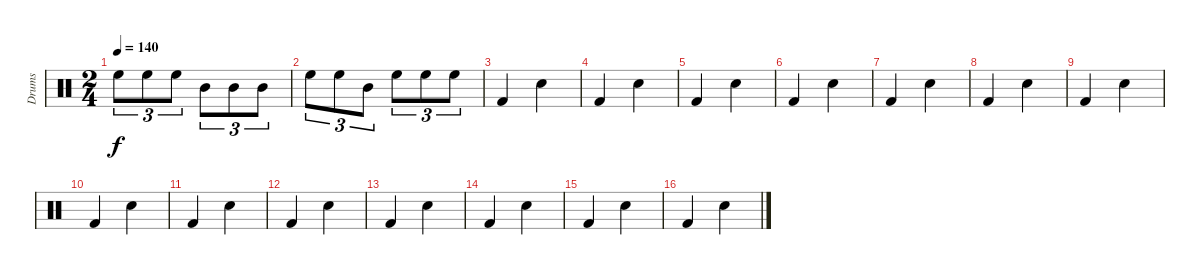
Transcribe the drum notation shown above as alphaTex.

\track ("Drums" "Drums") {instrument percussion}
\staff {score}
\articulation defaults
\ts (2 4)
\tempo 140
\clef neutral
\ks c "High Floor Tom (hit)".8{tu (3 2) dy f} "High Floor Tom (hit)".8{tu (3 2)} "High Floor Tom (hit)".8{tu (3 2)} "Mid Tom (hit)".8{tu (3 2)} "Mid Tom (hit)".8{tu (3 2)} "Mid Tom (hit)".8{tu (3 2)}
|
"High Floor Tom (hit)".8{tu (3 2)} "High Floor Tom (hit)".8{tu (3 2)} "Mid Tom (hit)".8{tu (3 2)} "High Floor Tom (hit)".8{tu (3 2)} "High Floor Tom (hit)".8{tu (3 2)} "High Floor Tom (hit)".8{tu (3 2)} |
"Kick (hit) 2".4 "Snare (hit) 2".4 |
"Kick (hit) 2".4 "Snare (hit) 2".4 |
"Kick (hit) 2".4 "Snare (hit) 2".4 |
"Kick (hit) 2".4 "Snare (hit) 2".4 |
"Kick (hit) 2".4 "Snare (hit) 2".4 |
"Kick (hit) 2".4 "Snare (hit) 2".4 |
"Kick (hit) 2".4 "Snare (hit) 2".4 |
"Kick (hit) 2".4 "Snare (hit) 2".4 |
"Kick (hit) 2".4 "Snare (hit) 2".4 |
"Kick (hit) 2".4 "Snare (hit) 2".4 |
"Kick (hit) 2".4 "Snare (hit) 2".4 |
"Kick (hit) 2".4 "Snare (hit) 2".4 |
"Kick (hit) 2".4 "Snare (hit) 2".4 |
"Kick (hit) 2".4 "Snare (hit) 2".4
